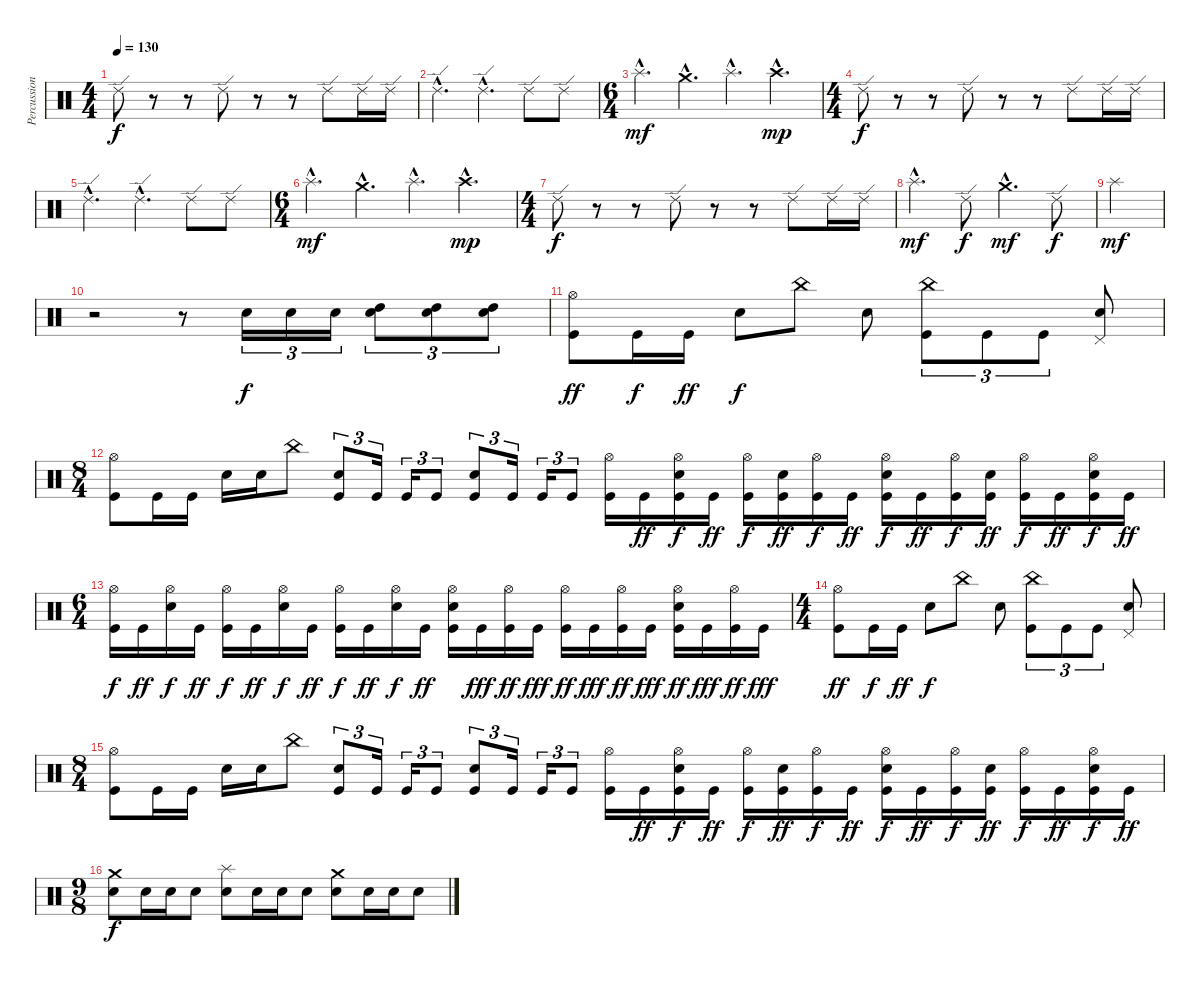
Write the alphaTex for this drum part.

\track ("Percussioni" "Percussion") {instrument percussion}
\staff {score}
\articulation defaults
\ts (4 4)
\tempo 130
\clef neutral
\ks c "Ride (edge) 2".8{dy f}
r.8 r.8 "Ride (edge) 2".8 r.8 r.8 "Ride (edge) 2".8 "Ride (edge) 2".16 "Ride (edge) 2".16 |
"Ride (edge) 2"{hac}.4{d} "Ride (edge) 2"{hac}.4{d} "Ride (edge) 2".8 "Ride (edge) 2".8 |
\ts (6 4)
"Splash (hit)"{hac}.4{d dy mf} "Crash medium (hit)"{hac}.4{d} "Splash (hit)"{hac}.4{d} "Crash high (hit)"{hac}.4{d dy mp} |
\ts (4 4)
"Ride (edge) 2".8{dy f} r.8 r.8 "Ride (edge) 2".8 r.8 r.8 "Ride (edge) 2".8 "Ride (edge) 2".16 "Ride (edge) 2".16 |
"Ride (edge) 2"{hac}.4{d} "Ride (edge) 2"{hac}.4{d} "Ride (edge) 2".8 "Ride (edge) 2".8 |
\ts (6 4)
"Splash (hit)"{hac}.4{d dy mf} "Crash medium (hit)"{hac}.4{d} "Splash (hit)"{hac}.4{d} "Crash high (hit)"{hac}.4{d dy mp} |
\ts (4 4)
"Ride (edge) 2".8{dy f} r.8 r.8 "Ride (edge) 2".8 r.8 r.8 "Ride (edge) 2".8 "Ride (edge) 2".16 "Ride (edge) 2".16 |
"Splash (hit)"{hac}.4{d dy mf} "Ride (edge) 2".8{dy f} "Crash medium (hit)"{hac}.4{d dy mf} "Ride (edge) 2".8{dy f} |
"Splash (hit)".4{dy mf} |
r.2 r.8 "Snare (hit) 2".16{tu (3 2) dy f} "Snare (hit) 2".16{tu (3 2)} "Snare (hit) 2".16{tu (3 2)} ("High Tom (hit)" "Snare (hit) 2").8{tu (3 2)} ("High Tom (hit)" "Snare (hit) 2").8{tu (3 2)} ("High Tom (hit)" "Snare (hit) 2").8{tu (3 2)} |
("Hi-Hat (open)" "Kick (hit)").8{dy ff} "Kick (hit)".16{dy f} "Kick (hit)".16{dy ff} "Snare (hit) 2".8{dy f} "China (hit)".8 "Snare (hit) 2".8 ("China (hit)" "Kick (hit)").8{tu (3 2)} "Kick (hit)".8{tu (3 2)} "Kick (hit)".8{tu (3 2)} ("Pedal Hi-Hat (hit)" "Snare (hit) 2").8 |
\ts (8 4)
("Hi-Hat (open)" "Kick (hit)").8 "Kick (hit)".16 "Kick (hit)".16 "Snare (hit) 2".16 "Snare (hit) 2".16 "China (hit)".8 ("Snare (hit) 2" "Kick (hit)").8{tu (3 2)} "Kick (hit)".16{tu (3 2)} "Kick (hit)".16{tu (3 2)} "Kick (hit)".8{tu (3 2)} ("Snare (hit) 2" "Kick (hit)").8{tu (3 2)} "Kick (hit)".16{tu (3 2)} "Kick (hit)".16{tu (3 2)} "Kick (hit)".8{tu (3 2)} ("Hi-Hat (open)" "Kick (hit)").16 "Kick (hit)".16{dy ff} ("Hi-Hat (open)" "Snare (hit) 2" "Kick (hit)").16{dy f} "Kick (hit)".16{dy ff} ("Hi-Hat (open)" "Kick (hit)").16{dy f} ("Snare (hit) 2" "Kick (hit)").16{dy ff} ("Hi-Hat (open)" "Kick (hit)").16{dy f} "Kick (hit)".16{dy ff} ("Hi-Hat (open)" "Snare (hit) 2" "Kick (hit)").16{dy f} "Kick (hit)".16{dy ff} ("Hi-Hat (open)" "Kick (hit)").16{dy f} ("Snare (hit) 2" "Kick (hit)").16{dy ff} ("Hi-Hat (open)" "Kick (hit)").16{dy f} "Kick (hit)".16{dy ff} ("Hi-Hat (open)" "Snare (hit) 2" "Kick (hit)").16{dy f} "Kick (hit)".16{dy ff} |
\ts (6 4)
("Hi-Hat (open)" "Kick (hit)").16{dy f} "Kick (hit)".16{dy ff} ("Hi-Hat (open)" "Snare (hit) 2").16{dy f} "Kick (hit)".16{dy ff} ("Hi-Hat (open)" "Kick (hit)").16{dy f} "Kick (hit)".16{dy ff} ("Hi-Hat (open)" "Snare (hit) 2").16{dy f} "Kick (hit)".16{dy ff} ("Hi-Hat (open)" "Kick (hit)").16{dy f} "Kick (hit)".16{dy ff} ("Hi-Hat (open)" "Snare (hit) 2").16{dy f} "Kick (hit)".16{dy ff} ("Hi-Hat (open)" "Snare (hit) 2" "Kick (hit)").16 "Kick (hit)".16{dy fff} ("Hi-Hat (open)" "Kick (hit)").16{dy ff} "Kick (hit)".16{dy fff} ("Hi-Hat (open)" "Kick (hit)").16{dy ff} "Kick (hit)".16{dy fff} ("Hi-Hat (open)" "Kick (hit)").16{dy ff} "Kick (hit)".16{dy fff} ("Hi-Hat (open)" "Snare (hit) 2" "Kick (hit)").16{dy ff} "Kick (hit)".16{dy fff} ("Hi-Hat (open)" "Kick (hit)").16{dy ff} "Kick (hit)".16{dy fff} |
\ts (4 4)
("Hi-Hat (open)" "Kick (hit)").8{dy ff} "Kick (hit)".16{dy f} "Kick (hit)".16{dy ff} "Snare (hit) 2".8{dy f} "China (hit)".8 "Snare (hit) 2".8 ("China (hit)" "Kick (hit)").8{tu (3 2)} "Kick (hit)".8{tu (3 2)} "Kick (hit)".8{tu (3 2)} ("Pedal Hi-Hat (hit)" "Snare (hit) 2").8 |
\ts (8 4)
("Hi-Hat (open)" "Kick (hit)").8 "Kick (hit)".16 "Kick (hit)".16 "Snare (hit) 2".16 "Snare (hit) 2".16 "China (hit)".8 ("Snare (hit) 2" "Kick (hit)").8{tu (3 2)} "Kick (hit)".16{tu (3 2)} "Kick (hit)".16{tu (3 2)} "Kick (hit)".8{tu (3 2)} ("Snare (hit) 2" "Kick (hit)").8{tu (3 2)} "Kick (hit)".16{tu (3 2)} "Kick (hit)".16{tu (3 2)} "Kick (hit)".8{tu (3 2)} ("Hi-Hat (open)" "Kick (hit)").16 "Kick (hit)".16{dy ff} ("Hi-Hat (open)" "Snare (hit) 2" "Kick (hit)").16{dy f} "Kick (hit)".16{dy ff} ("Hi-Hat (open)" "Kick (hit)").16{dy f} ("Snare (hit) 2" "Kick (hit)").16{dy ff} ("Hi-Hat (open)" "Kick (hit)").16{dy f} "Kick (hit)".16{dy ff} ("Hi-Hat (open)" "Snare (hit) 2" "Kick (hit)").16{dy f} "Kick (hit)".16{dy ff} ("Hi-Hat (open)" "Kick (hit)").16{dy f} ("Snare (hit) 2" "Kick (hit)").16{dy ff} ("Hi-Hat (open)" "Kick (hit)").16{dy f} "Kick (hit)".16{dy ff} ("Hi-Hat (open)" "Snare (hit) 2" "Kick (hit)").16{dy f} "Kick (hit)".16{dy ff} |
\ts (9 8)
("Crash medium (hit)" "Snare (hit) 2").8{dy f} "Snare (hit) 2".16 "Snare (hit) 2".16 "Snare (hit) 2".8 ("Splash (hit)" "Snare (hit) 2").8 "Snare (hit) 2".16 "Snare (hit) 2".16 "Snare (hit) 2".8 ("Crash medium (hit)" "Snare (hit) 2").8 "Snare (hit) 2".16 "Snare (hit) 2".16 "Snare (hit) 2".8
